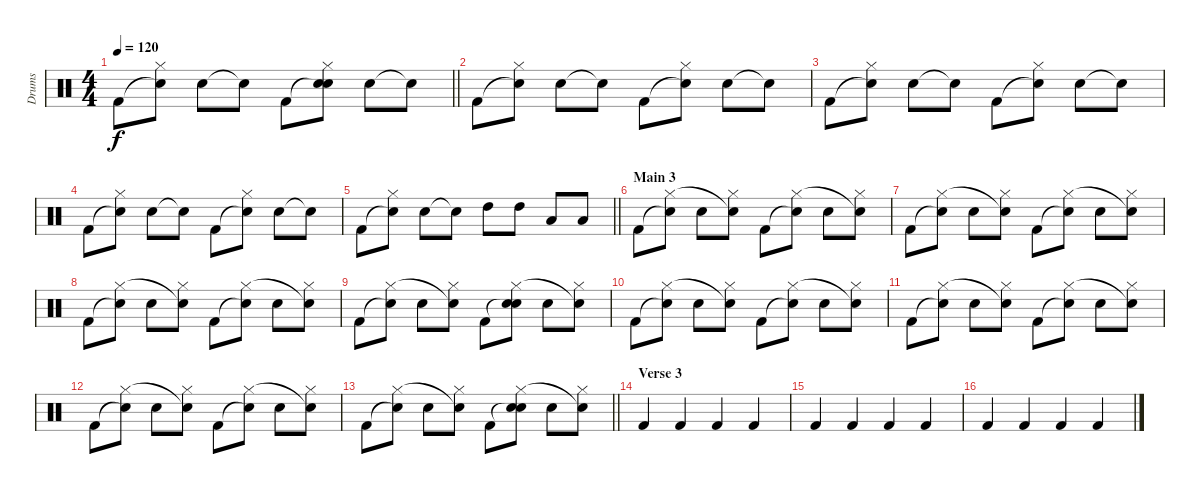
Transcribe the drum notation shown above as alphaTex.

\track ("Drums" "Drums") {instrument percussion}
\staff {score}
\articulation defaults
\ts (4 4)
\tempo 120
\clef neutral
\barLineRight lightlight
\ks c "Kick (hit) 2".8{dy f}
("Snare (hit)"{t} "Hi-Hat (closed)").8 "Snare (hit) 2".8 "Snare (hit)"{t}.8 "Kick (hit) 2".8 ("Snare (hit)"{t} "Hi-Hat (closed)" "Snare (hit) 2").8 "Snare (hit) 2".8 "Snare (hit)"{t}.8 |
"Kick (hit) 2".8 ("Snare (hit)"{t} "Hi-Hat (closed)").8 "Snare (hit) 2".8 "Snare (hit)"{t}.8 "Kick (hit) 2".8 ("Snare (hit)"{t} "Hi-Hat (closed)").8 "Snare (hit) 2".8 "Snare (hit)"{t}.8 |
"Kick (hit) 2".8 ("Snare (hit)"{t} "Hi-Hat (closed)").8 "Snare (hit) 2".8 "Snare (hit)"{t}.8 "Kick (hit) 2".8 ("Snare (hit)"{t} "Hi-Hat (closed)").8 "Snare (hit) 2".8 "Snare (hit)"{t}.8 |
"Kick (hit) 2".8 ("Snare (hit)"{t} "Hi-Hat (closed)").8 "Snare (hit) 2".8 "Snare (hit)"{t}.8 "Kick (hit) 2".8 ("Snare (hit)"{t} "Hi-Hat (closed)").8 "Snare (hit) 2".8 "Snare (hit)"{t}.8 |
\barLineRight lightlight "Kick (hit) 2".8
("Snare (hit)"{t} "Hi-Hat (closed)").8 "Snare (hit) 2".8 "Snare (hit)"{t}.8 "High Tom (hit)".8 "High Tom (hit)".8 "Low Tom (hit)".8 "Low Tom (hit)".8 |
\section ("" "Main 3")
"Kick (hit) 2".8 ("Snare (hit)"{t} "Hi-Hat (closed)").8 "Snare (hit) 2".8 ("Hi-Hat (closed)" "Snare (hit)"{t}).8 "Kick (hit) 2".8 ("Snare (hit)"{t} "Hi-Hat (closed)").8 "Snare (hit) 2".8 ("Hi-Hat (closed)" "Snare (hit)"{t}).8 |
"Kick (hit) 2".8 ("Snare (hit)"{t} "Hi-Hat (closed)").8 "Snare (hit) 2".8 ("Hi-Hat (closed)" "Snare (hit)"{t}).8 "Kick (hit) 2".8 ("Snare (hit)"{t} "Hi-Hat (closed)").8 "Snare (hit) 2".8 ("Hi-Hat (closed)" "Snare (hit)"{t}).8 |
"Kick (hit) 2".8 ("Snare (hit)"{t} "Hi-Hat (closed)").8 "Snare (hit) 2".8 ("Hi-Hat (closed)" "Snare (hit)"{t}).8 "Kick (hit) 2".8 ("Snare (hit)"{t} "Hi-Hat (closed)").8 "Snare (hit) 2".8 ("Hi-Hat (closed)" "Snare (hit)"{t}).8 |
"Kick (hit) 2".8 ("Snare (hit)"{t} "Hi-Hat (closed)").8 "Snare (hit) 2".8 ("Hi-Hat (closed)" "Snare (hit)"{t}).8 "Kick (hit) 2".8 ("Snare (hit)"{t} "Hi-Hat (closed)" "Snare (hit) 2").8 "Snare (hit) 2".8 ("Hi-Hat (closed)" "Snare (hit)"{t}).8 |
"Kick (hit) 2".8 ("Snare (hit)"{t} "Hi-Hat (closed)").8 "Snare (hit) 2".8 ("Hi-Hat (closed)" "Snare (hit)"{t}).8 "Kick (hit) 2".8 ("Snare (hit)"{t} "Hi-Hat (closed)").8 "Snare (hit) 2".8 ("Hi-Hat (closed)" "Snare (hit)"{t}).8 |
"Kick (hit) 2".8 ("Snare (hit)"{t} "Hi-Hat (closed)").8 "Snare (hit) 2".8 ("Hi-Hat (closed)" "Snare (hit)"{t}).8 "Kick (hit) 2".8 ("Snare (hit)"{t} "Hi-Hat (closed)").8 "Snare (hit) 2".8 ("Hi-Hat (closed)" "Snare (hit)"{t}).8 |
"Kick (hit) 2".8 ("Snare (hit)"{t} "Hi-Hat (closed)").8 "Snare (hit) 2".8 ("Hi-Hat (closed)" "Snare (hit)"{t}).8 "Kick (hit) 2".8 ("Snare (hit)"{t} "Hi-Hat (closed)").8 "Snare (hit) 2".8 ("Hi-Hat (closed)" "Snare (hit)"{t}).8 |
\barLineRight lightlight "Kick (hit) 2".8
("Snare (hit)"{t} "Hi-Hat (closed)").8 "Snare (hit) 2".8 ("Hi-Hat (closed)" "Snare (hit)"{t}).8 "Kick (hit) 2".8 ("Snare (hit)"{t} "Hi-Hat (closed)" "Snare (hit) 2").8 "Snare (hit) 2".8 ("Hi-Hat (closed)" "Snare (hit)"{t}).8 |
\section ("" "Verse 3")
"Kick (hit) 2".4 "Kick (hit) 2".4 "Kick (hit) 2".4 "Kick (hit) 2".4 |
"Kick (hit) 2".4 "Kick (hit) 2".4 "Kick (hit) 2".4 "Kick (hit) 2".4 |
"Kick (hit) 2".4 "Kick (hit) 2".4 "Kick (hit) 2".4 "Kick (hit) 2".4
